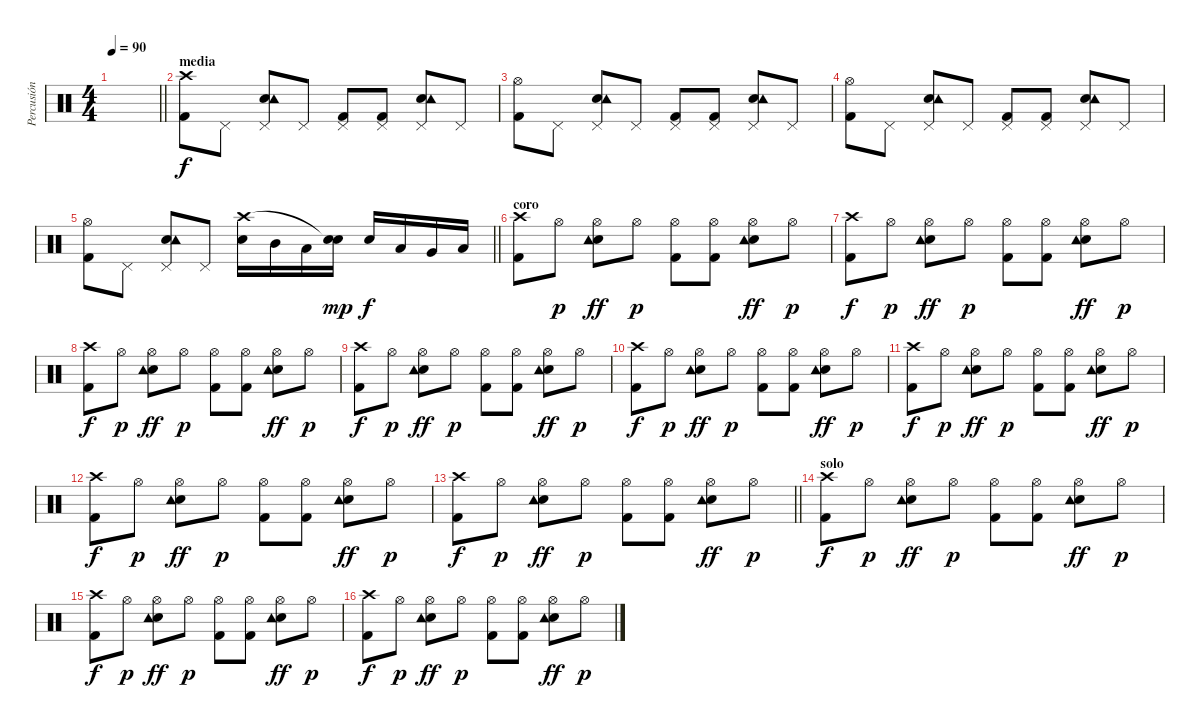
\track ("Percusión" "Percusión") {instrument percussion}
\staff {score}
\articulation defaults
\ts (4 4)
\tempo 90
\clef neutral
\barLineRight lightlight
\ks c
|
\section ("" "media")
("Crash high (hit)" "Kick (hit) 2").8{dy f} "Pedal Hi-Hat (hit)".8 ("Pedal Hi-Hat (hit)" "Snare (hit) 2" "Tambourine (hit)").8 "Pedal Hi-Hat (hit)".8 ("Pedal Hi-Hat (hit)" "Kick (hit) 2").8 ("Pedal Hi-Hat (hit)" "Kick (hit) 2").8 ("Pedal Hi-Hat (hit)" "Snare (hit) 2" "Tambourine (hit)").8 "Pedal Hi-Hat (hit)".8 |
("Hi-Hat (open)" "Kick (hit) 2").8 "Pedal Hi-Hat (hit)".8 ("Pedal Hi-Hat (hit)" "Snare (hit) 2" "Tambourine (hit)").8 "Pedal Hi-Hat (hit)".8 ("Pedal Hi-Hat (hit)" "Kick (hit) 2").8 ("Pedal Hi-Hat (hit)" "Kick (hit) 2").8 ("Pedal Hi-Hat (hit)" "Snare (hit) 2" "Tambourine (hit)").8 "Pedal Hi-Hat (hit)".8 |
("Hi-Hat (open)" "Kick (hit) 2").8 "Pedal Hi-Hat (hit)".8 ("Pedal Hi-Hat (hit)" "Snare (hit) 2" "Tambourine (hit)").8 "Pedal Hi-Hat (hit)".8 ("Pedal Hi-Hat (hit)" "Kick (hit) 2").8 ("Pedal Hi-Hat (hit)" "Kick (hit) 2").8 ("Pedal Hi-Hat (hit)" "Snare (hit) 2" "Tambourine (hit)").8 "Pedal Hi-Hat (hit)".8 |
\barLineRight lightlight
("Hi-Hat (open)" "Kick (hit) 2").8 "Pedal Hi-Hat (hit)".8 ("Pedal Hi-Hat (hit)" "Snare (hit) 2" "Tambourine (hit)").8 "Pedal Hi-Hat (hit)".8 ("Snare (hit) 2" "Crash high (hit)").16 "Mid Tom (hit)".16 "Low Tom (hit)".16 ("Snare (hit) 2" "Snare (hit)"{t}).16{dy mp} "Snare (hit) 2".16{dy f} "Low Tom (hit)".16 "Very Low Tom (hit)".16 "Low Floor Tom (hit)".16 |
\section ("" "coro")
("Crash high (hit)" "Kick (hit) 2").8 "Hi-Hat (open)".8{dy p} ("Hi-Hat (open)" "Snare (hit) 2" "Tambourine (hit)").8{dy ff} "Hi-Hat (open)".8{dy p} ("Hi-Hat (open)" "Kick (hit) 2").8 ("Hi-Hat (open)" "Kick (hit) 2").8 ("Hi-Hat (open)" "Snare (hit) 2" "Tambourine (hit)").8{dy ff} "Hi-Hat (open)".8{dy p} |
("Crash high (hit)" "Kick (hit) 2").8{dy f} "Hi-Hat (open)".8{dy p} ("Hi-Hat (open)" "Snare (hit) 2" "Tambourine (hit)").8{dy ff} "Hi-Hat (open)".8{dy p} ("Hi-Hat (open)" "Kick (hit) 2").8 ("Hi-Hat (open)" "Kick (hit) 2").8 ("Hi-Hat (open)" "Snare (hit) 2" "Tambourine (hit)").8{dy ff} "Hi-Hat (open)".8{dy p} |
("Crash high (hit)" "Kick (hit) 2").8{dy f} "Hi-Hat (open)".8{dy p} ("Hi-Hat (open)" "Snare (hit) 2" "Tambourine (hit)").8{dy ff} "Hi-Hat (open)".8{dy p} ("Hi-Hat (open)" "Kick (hit) 2").8 ("Hi-Hat (open)" "Kick (hit) 2").8 ("Hi-Hat (open)" "Snare (hit) 2" "Tambourine (hit)").8{dy ff} "Hi-Hat (open)".8{dy p} |
("Crash high (hit)" "Kick (hit) 2").8{dy f} "Hi-Hat (open)".8{dy p} ("Hi-Hat (open)" "Snare (hit) 2" "Tambourine (hit)").8{dy ff} "Hi-Hat (open)".8{dy p} ("Hi-Hat (open)" "Kick (hit) 2").8 ("Hi-Hat (open)" "Kick (hit) 2").8 ("Hi-Hat (open)" "Snare (hit) 2" "Tambourine (hit)").8{dy ff} "Hi-Hat (open)".8{dy p} |
("Crash high (hit)" "Kick (hit) 2").8{dy f} "Hi-Hat (open)".8{dy p} ("Hi-Hat (open)" "Snare (hit) 2" "Tambourine (hit)").8{dy ff} "Hi-Hat (open)".8{dy p} ("Hi-Hat (open)" "Kick (hit) 2").8 ("Hi-Hat (open)" "Kick (hit) 2").8 ("Hi-Hat (open)" "Snare (hit) 2" "Tambourine (hit)").8{dy ff} "Hi-Hat (open)".8{dy p} |
("Crash high (hit)" "Kick (hit) 2").8{dy f} "Hi-Hat (open)".8{dy p} ("Hi-Hat (open)" "Snare (hit) 2" "Tambourine (hit)").8{dy ff} "Hi-Hat (open)".8{dy p} ("Hi-Hat (open)" "Kick (hit) 2").8 ("Hi-Hat (open)" "Kick (hit) 2").8 ("Hi-Hat (open)" "Snare (hit) 2" "Tambourine (hit)").8{dy ff} "Hi-Hat (open)".8{dy p} |
("Crash high (hit)" "Kick (hit) 2").8{dy f} "Hi-Hat (open)".8{dy p} ("Hi-Hat (open)" "Snare (hit) 2" "Tambourine (hit)").8{dy ff} "Hi-Hat (open)".8{dy p} ("Hi-Hat (open)" "Kick (hit) 2").8 ("Hi-Hat (open)" "Kick (hit) 2").8 ("Hi-Hat (open)" "Snare (hit) 2" "Tambourine (hit)").8{dy ff} "Hi-Hat (open)".8{dy p} |
\barLineRight lightlight
("Crash high (hit)" "Kick (hit) 2").8{dy f} "Hi-Hat (open)".8{dy p} ("Hi-Hat (open)" "Snare (hit) 2" "Tambourine (hit)").8{dy ff} "Hi-Hat (open)".8{dy p} ("Hi-Hat (open)" "Kick (hit) 2").8 ("Hi-Hat (open)" "Kick (hit) 2").8 ("Hi-Hat (open)" "Snare (hit) 2" "Tambourine (hit)").8{dy ff} "Hi-Hat (open)".8{dy p} |
\section ("" "solo")
("Crash high (hit)" "Kick (hit) 2").8{dy f} "Hi-Hat (open)".8{dy p} ("Hi-Hat (open)" "Snare (hit) 2" "Tambourine (hit)").8{dy ff} "Hi-Hat (open)".8{dy p} ("Hi-Hat (open)" "Kick (hit) 2").8 ("Hi-Hat (open)" "Kick (hit) 2").8 ("Hi-Hat (open)" "Snare (hit) 2" "Tambourine (hit)").8{dy ff} "Hi-Hat (open)".8{dy p} |
("Crash high (hit)" "Kick (hit) 2").8{dy f} "Hi-Hat (open)".8{dy p} ("Hi-Hat (open)" "Snare (hit) 2" "Tambourine (hit)").8{dy ff} "Hi-Hat (open)".8{dy p} ("Hi-Hat (open)" "Kick (hit) 2").8 ("Hi-Hat (open)" "Kick (hit) 2").8 ("Hi-Hat (open)" "Snare (hit) 2" "Tambourine (hit)").8{dy ff} "Hi-Hat (open)".8{dy p} |
("Crash high (hit)" "Kick (hit) 2").8{dy f} "Hi-Hat (open)".8{dy p} ("Hi-Hat (open)" "Snare (hit) 2" "Tambourine (hit)").8{dy ff} "Hi-Hat (open)".8{dy p} ("Hi-Hat (open)" "Kick (hit) 2").8 ("Hi-Hat (open)" "Kick (hit) 2").8 ("Hi-Hat (open)" "Snare (hit) 2" "Tambourine (hit)").8{dy ff} "Hi-Hat (open)".8{dy p}
